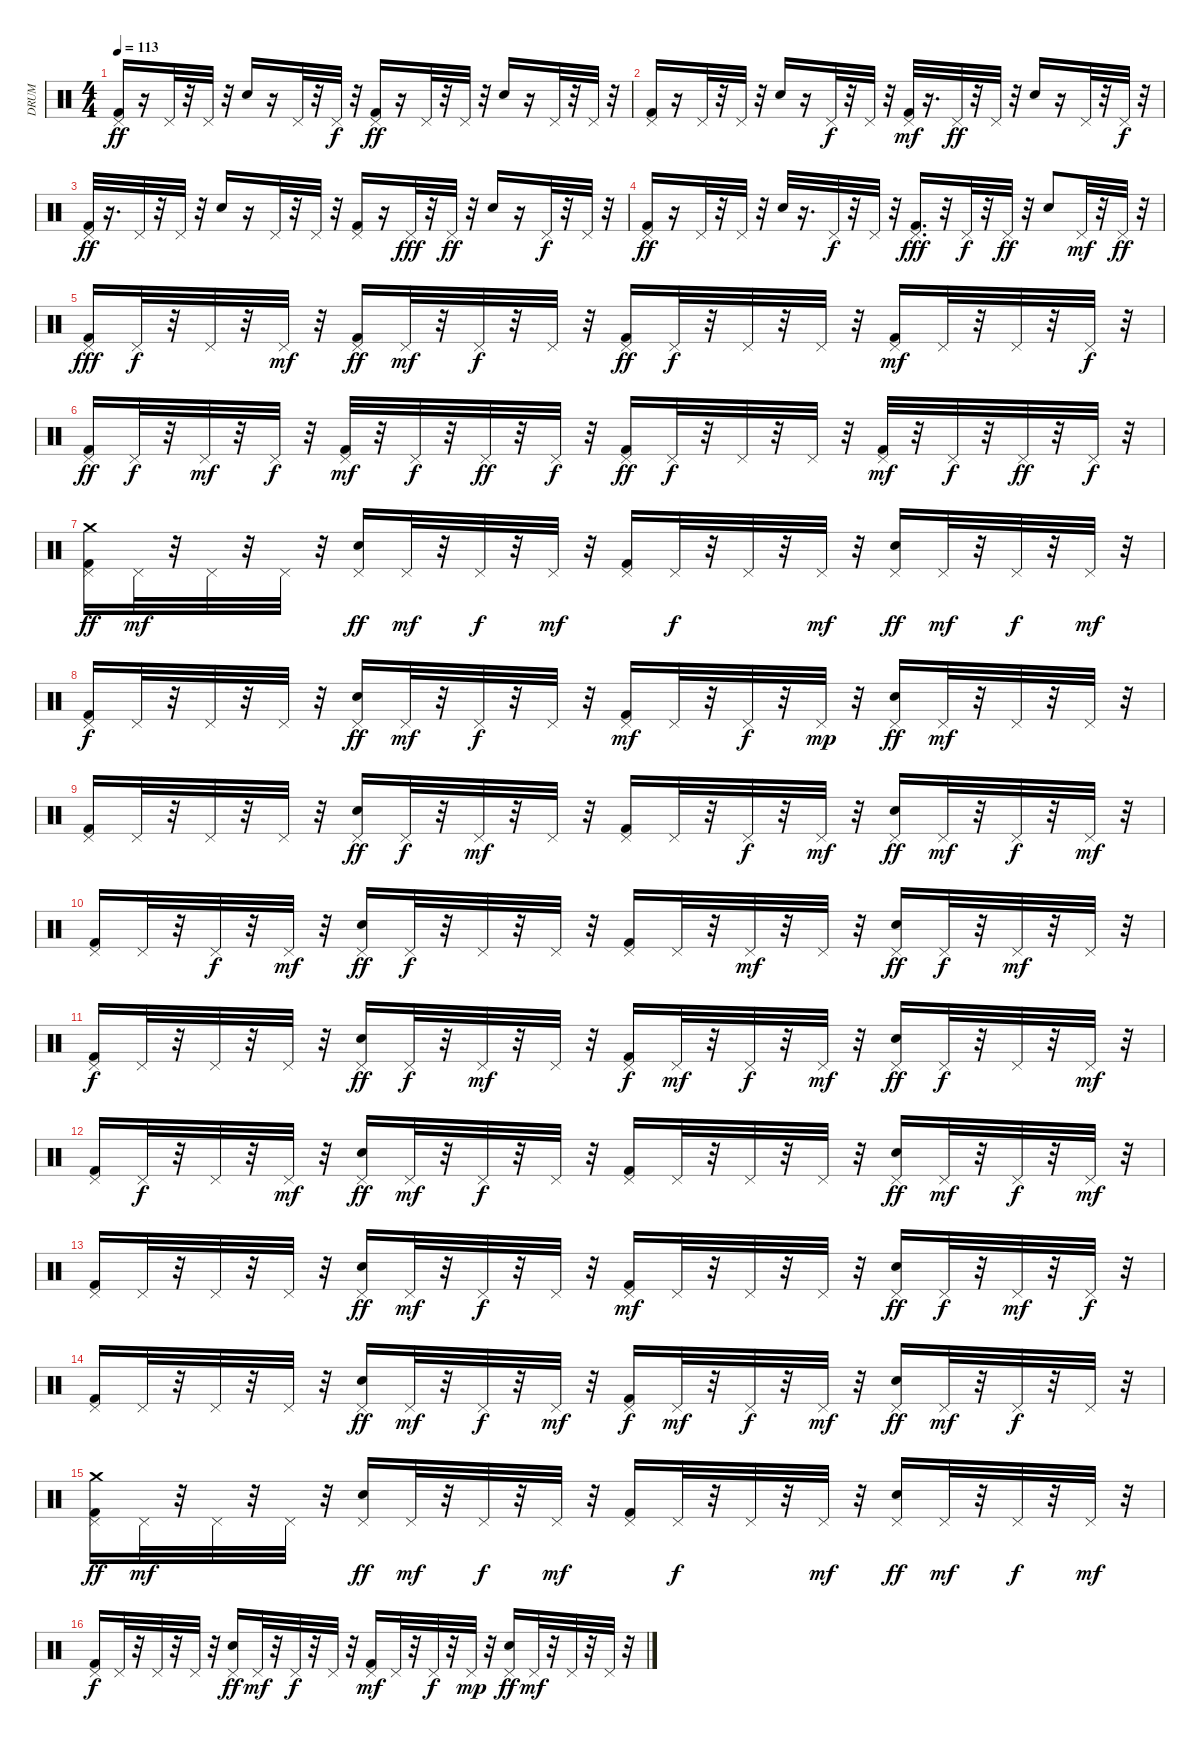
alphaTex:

\track ("DRUM" "DRUM") {instrument percussion}
\staff {score}
\articulation defaults
\ts (4 4)
\tempo 113
\clef neutral
\ks c
("Pedal Hi-Hat (hit)" "Kick (hit) 2").16{dy ff} r.16 "Pedal Hi-Hat (hit)".32 r.32 "Pedal Hi-Hat (hit)".32 r.32 "Snare (hit) 2".16 r.16 "Pedal Hi-Hat (hit)".32 r.32 "Pedal Hi-Hat (hit)".32{dy f} r.32 ("Pedal Hi-Hat (hit)" "Kick (hit) 2").16{dy ff} r.16 "Pedal Hi-Hat (hit)".32 r.32 "Pedal Hi-Hat (hit)".32 r.32 "Snare (hit) 2".16 r.16 "Pedal Hi-Hat (hit)".32 r.32 "Pedal Hi-Hat (hit)".32 r.32 |
("Pedal Hi-Hat (hit)" "Kick (hit) 2").16 r.16 "Pedal Hi-Hat (hit)".32 r.32 "Pedal Hi-Hat (hit)".32 r.32 "Snare (hit) 2".16 r.16 "Pedal Hi-Hat (hit)".32{dy f} r.32 "Pedal Hi-Hat (hit)".32 r.32 ("Pedal Hi-Hat (hit)" "Kick (hit) 2").32{dy mf} r.16{d} "Pedal Hi-Hat (hit)".32{dy ff} r.32 "Pedal Hi-Hat (hit)".32 r.32 "Snare (hit) 2".16 r.16 "Pedal Hi-Hat (hit)".32 r.32 "Pedal Hi-Hat (hit)".32{dy f} r.32 |
("Pedal Hi-Hat (hit)" "Kick (hit) 2").32{dy ff} r.16{d} "Pedal Hi-Hat (hit)".32 r.32 "Pedal Hi-Hat (hit)".32 r.32 "Snare (hit) 2".16 r.16 "Pedal Hi-Hat (hit)".32 r.32 "Pedal Hi-Hat (hit)".32 r.32 ("Pedal Hi-Hat (hit)" "Kick (hit) 2").16 r.16 "Pedal Hi-Hat (hit)".32{dy fff} r.32 "Pedal Hi-Hat (hit)".32{dy ff} r.32 "Snare (hit) 2".16 r.16 "Pedal Hi-Hat (hit)".32{dy f} r.32 "Pedal Hi-Hat (hit)".32 r.32 |
("Pedal Hi-Hat (hit)" "Kick (hit) 2").16{dy ff} r.16 "Pedal Hi-Hat (hit)".32 r.32 "Pedal Hi-Hat (hit)".32 r.32 "Snare (hit) 2".32 r.16{d} "Pedal Hi-Hat (hit)".32{dy f} r.32 "Pedal Hi-Hat (hit)".32 r.32 ("Pedal Hi-Hat (hit)" "Kick (hit) 2").16{d dy fff} r.32 "Pedal Hi-Hat (hit)".32{dy f} r.32 "Pedal Hi-Hat (hit)".32{dy ff} r.32 "Snare (hit) 2".8 "Pedal Hi-Hat (hit)".32{dy mf} r.32 "Pedal Hi-Hat (hit)".32{dy ff} r.32 |
("Pedal Hi-Hat (hit)" "Kick (hit) 2").16{dy fff} "Pedal Hi-Hat (hit)".32{dy f} r.32 "Pedal Hi-Hat (hit)".32 r.32 "Pedal Hi-Hat (hit)".32{dy mf} r.32 ("Pedal Hi-Hat (hit)" "Kick (hit) 2").16{dy ff} "Pedal Hi-Hat (hit)".32{dy mf} r.32 "Pedal Hi-Hat (hit)".32{dy f} r.32 "Pedal Hi-Hat (hit)".32 r.32 ("Pedal Hi-Hat (hit)" "Kick (hit) 2").16{dy ff} "Pedal Hi-Hat (hit)".32{dy f} r.32 "Pedal Hi-Hat (hit)".32 r.32 "Pedal Hi-Hat (hit)".32 r.32 ("Pedal Hi-Hat (hit)" "Kick (hit) 2").16{dy mf} "Pedal Hi-Hat (hit)".32 r.32 "Pedal Hi-Hat (hit)".32 r.32 "Pedal Hi-Hat (hit)".32{dy f} r.32 |
("Pedal Hi-Hat (hit)" "Kick (hit) 2").16{dy ff} "Pedal Hi-Hat (hit)".32{dy f} r.32 "Pedal Hi-Hat (hit)".32{dy mf} r.32 "Pedal Hi-Hat (hit)".32{dy f} r.32 ("Pedal Hi-Hat (hit)" "Kick (hit) 2").32{dy mf} r.32 "Pedal Hi-Hat (hit)".32{dy f} r.32 "Pedal Hi-Hat (hit)".32{dy ff} r.32 "Pedal Hi-Hat (hit)".32{dy f} r.32 ("Pedal Hi-Hat (hit)" "Kick (hit) 2").16{dy ff} "Pedal Hi-Hat (hit)".32{dy f} r.32 "Pedal Hi-Hat (hit)".32 r.32 "Pedal Hi-Hat (hit)".32 r.32 ("Pedal Hi-Hat (hit)" "Kick (hit) 2").32{dy mf} r.32 "Pedal Hi-Hat (hit)".32{dy f} r.32 "Pedal Hi-Hat (hit)".32{dy ff} r.32 "Pedal Hi-Hat (hit)".32{dy f} r.32 |
("Crash medium (hit)" "Pedal Hi-Hat (hit)" "Kick (hit) 2").16{dy ff} "Pedal Hi-Hat (hit)".32{dy mf} r.32 "Pedal Hi-Hat (hit)".32 r.32 "Pedal Hi-Hat (hit)".32 r.32 ("Pedal Hi-Hat (hit)" "Snare (hit) 2").16{dy ff} "Pedal Hi-Hat (hit)".32{dy mf} r.32 "Pedal Hi-Hat (hit)".32{dy f} r.32 "Pedal Hi-Hat (hit)".32{dy mf} r.32 ("Pedal Hi-Hat (hit)" "Kick (hit) 2").16 "Pedal Hi-Hat (hit)".32{dy f} r.32 "Pedal Hi-Hat (hit)".32 r.32 "Pedal Hi-Hat (hit)".32{dy mf} r.32 ("Pedal Hi-Hat (hit)" "Snare (hit) 2").16{dy ff} "Pedal Hi-Hat (hit)".32{dy mf} r.32 "Pedal Hi-Hat (hit)".32{dy f} r.32 "Pedal Hi-Hat (hit)".32{dy mf} r.32 |
("Pedal Hi-Hat (hit)" "Kick (hit) 2").16{dy f} "Pedal Hi-Hat (hit)".32 r.32 "Pedal Hi-Hat (hit)".32 r.32 "Pedal Hi-Hat (hit)".32 r.32 ("Pedal Hi-Hat (hit)" "Snare (hit) 2").16{dy ff} "Pedal Hi-Hat (hit)".32{dy mf} r.32 "Pedal Hi-Hat (hit)".32{dy f} r.32 "Pedal Hi-Hat (hit)".32 r.32 ("Pedal Hi-Hat (hit)" "Kick (hit) 2").16{dy mf} "Pedal Hi-Hat (hit)".32 r.32 "Pedal Hi-Hat (hit)".32{dy f} r.32 "Pedal Hi-Hat (hit)".32{dy mp} r.32 ("Pedal Hi-Hat (hit)" "Snare (hit) 2").16{dy ff} "Pedal Hi-Hat (hit)".32{dy mf} r.32 "Pedal Hi-Hat (hit)".32 r.32 "Pedal Hi-Hat (hit)".32 r.32 |
("Pedal Hi-Hat (hit)" "Kick (hit) 2").16 "Pedal Hi-Hat (hit)".32 r.32 "Pedal Hi-Hat (hit)".32 r.32 "Pedal Hi-Hat (hit)".32 r.32 ("Pedal Hi-Hat (hit)" "Snare (hit) 2").16{dy ff} "Pedal Hi-Hat (hit)".32{dy f} r.32 "Pedal Hi-Hat (hit)".32{dy mf} r.32 "Pedal Hi-Hat (hit)".32 r.32 ("Pedal Hi-Hat (hit)" "Kick (hit) 2").16 "Pedal Hi-Hat (hit)".32 r.32 "Pedal Hi-Hat (hit)".32{dy f} r.32 "Pedal Hi-Hat (hit)".32{dy mf} r.32 ("Pedal Hi-Hat (hit)" "Snare (hit) 2").16{dy ff} "Pedal Hi-Hat (hit)".32{dy mf} r.32 "Pedal Hi-Hat (hit)".32{dy f} r.32 "Pedal Hi-Hat (hit)".32{dy mf} r.32 |
("Pedal Hi-Hat (hit)" "Kick (hit) 2").16 "Pedal Hi-Hat (hit)".32 r.32 "Pedal Hi-Hat (hit)".32{dy f} r.32 "Pedal Hi-Hat (hit)".32{dy mf} r.32 ("Pedal Hi-Hat (hit)" "Snare (hit) 2").16{dy ff} "Pedal Hi-Hat (hit)".32{dy f} r.32 "Pedal Hi-Hat (hit)".32 r.32 "Pedal Hi-Hat (hit)".32 r.32 ("Pedal Hi-Hat (hit)" "Kick (hit) 2").16 "Pedal Hi-Hat (hit)".32 r.32 "Pedal Hi-Hat (hit)".32{dy mf} r.32 "Pedal Hi-Hat (hit)".32 r.32 ("Pedal Hi-Hat (hit)" "Snare (hit) 2").16{dy ff} "Pedal Hi-Hat (hit)".32{dy f} r.32 "Pedal Hi-Hat (hit)".32{dy mf} r.32 "Pedal Hi-Hat (hit)".32 r.32 |
("Pedal Hi-Hat (hit)" "Kick (hit) 2").16{dy f} "Pedal Hi-Hat (hit)".32 r.32 "Pedal Hi-Hat (hit)".32 r.32 "Pedal Hi-Hat (hit)".32 r.32 ("Pedal Hi-Hat (hit)" "Snare (hit) 2").16{dy ff} "Pedal Hi-Hat (hit)".32{dy f} r.32 "Pedal Hi-Hat (hit)".32{dy mf} r.32 "Pedal Hi-Hat (hit)".32 r.32 ("Pedal Hi-Hat (hit)" "Kick (hit) 2").16{dy f} "Pedal Hi-Hat (hit)".32{dy mf} r.32 "Pedal Hi-Hat (hit)".32{dy f} r.32 "Pedal Hi-Hat (hit)".32{dy mf} r.32 ("Pedal Hi-Hat (hit)" "Snare (hit) 2").16{dy ff} "Pedal Hi-Hat (hit)".32{dy f} r.32 "Pedal Hi-Hat (hit)".32 r.32 "Pedal Hi-Hat (hit)".32{dy mf} r.32 |
("Pedal Hi-Hat (hit)" "Kick (hit) 2").16 "Pedal Hi-Hat (hit)".32{dy f} r.32 "Pedal Hi-Hat (hit)".32 r.32 "Pedal Hi-Hat (hit)".32{dy mf} r.32 ("Pedal Hi-Hat (hit)" "Snare (hit) 2").16{dy ff} "Pedal Hi-Hat (hit)".32{dy mf} r.32 "Pedal Hi-Hat (hit)".32{dy f} r.32 "Pedal Hi-Hat (hit)".32 r.32 ("Pedal Hi-Hat (hit)" "Kick (hit) 2").16 "Pedal Hi-Hat (hit)".32 r.32 "Pedal Hi-Hat (hit)".32 r.32 "Pedal Hi-Hat (hit)".32 r.32 ("Pedal Hi-Hat (hit)" "Snare (hit) 2").16{dy ff} "Pedal Hi-Hat (hit)".32{dy mf} r.32 "Pedal Hi-Hat (hit)".32{dy f} r.32 "Pedal Hi-Hat (hit)".32{dy mf} r.32 |
("Pedal Hi-Hat (hit)" "Kick (hit) 2").16 "Pedal Hi-Hat (hit)".32 r.32 "Pedal Hi-Hat (hit)".32 r.32 "Pedal Hi-Hat (hit)".32 r.32 ("Pedal Hi-Hat (hit)" "Snare (hit) 2").16{dy ff} "Pedal Hi-Hat (hit)".32{dy mf} r.32 "Pedal Hi-Hat (hit)".32{dy f} r.32 "Pedal Hi-Hat (hit)".32 r.32 ("Pedal Hi-Hat (hit)" "Kick (hit) 2").16{dy mf} "Pedal Hi-Hat (hit)".32 r.32 "Pedal Hi-Hat (hit)".32 r.32 "Pedal Hi-Hat (hit)".32 r.32 ("Pedal Hi-Hat (hit)" "Snare (hit) 2").16{dy ff} "Pedal Hi-Hat (hit)".32{dy f} r.32 "Pedal Hi-Hat (hit)".32{dy mf} r.32 "Pedal Hi-Hat (hit)".32{dy f} r.32 |
("Pedal Hi-Hat (hit)" "Kick (hit) 2").16 "Pedal Hi-Hat (hit)".32 r.32 "Pedal Hi-Hat (hit)".32 r.32 "Pedal Hi-Hat (hit)".32 r.32 ("Pedal Hi-Hat (hit)" "Snare (hit) 2").16{dy ff} "Pedal Hi-Hat (hit)".32{dy mf} r.32 "Pedal Hi-Hat (hit)".32{dy f} r.32 "Pedal Hi-Hat (hit)".32{dy mf} r.32 ("Pedal Hi-Hat (hit)" "Kick (hit) 2").16{dy f} "Pedal Hi-Hat (hit)".32{dy mf} r.32 "Pedal Hi-Hat (hit)".32{dy f} r.32 "Pedal Hi-Hat (hit)".32{dy mf} r.32 ("Pedal Hi-Hat (hit)" "Snare (hit) 2").16{dy ff} "Pedal Hi-Hat (hit)".32{dy mf} r.32 "Pedal Hi-Hat (hit)".32{dy f} r.32 "Pedal Hi-Hat (hit)".32 r.32 |
("Crash medium (hit)" "Pedal Hi-Hat (hit)" "Kick (hit) 2").16{dy ff} "Pedal Hi-Hat (hit)".32{dy mf} r.32 "Pedal Hi-Hat (hit)".32 r.32 "Pedal Hi-Hat (hit)".32 r.32 ("Pedal Hi-Hat (hit)" "Snare (hit) 2").16{dy ff} "Pedal Hi-Hat (hit)".32{dy mf} r.32 "Pedal Hi-Hat (hit)".32{dy f} r.32 "Pedal Hi-Hat (hit)".32{dy mf} r.32 ("Pedal Hi-Hat (hit)" "Kick (hit) 2").16 "Pedal Hi-Hat (hit)".32{dy f} r.32 "Pedal Hi-Hat (hit)".32 r.32 "Pedal Hi-Hat (hit)".32{dy mf} r.32 ("Pedal Hi-Hat (hit)" "Snare (hit) 2").16{dy ff} "Pedal Hi-Hat (hit)".32{dy mf} r.32 "Pedal Hi-Hat (hit)".32{dy f} r.32 "Pedal Hi-Hat (hit)".32{dy mf} r.32 |
("Pedal Hi-Hat (hit)" "Kick (hit) 2").16{dy f} "Pedal Hi-Hat (hit)".32 r.32 "Pedal Hi-Hat (hit)".32 r.32 "Pedal Hi-Hat (hit)".32 r.32 ("Pedal Hi-Hat (hit)" "Snare (hit) 2").16{dy ff} "Pedal Hi-Hat (hit)".32{dy mf} r.32 "Pedal Hi-Hat (hit)".32{dy f} r.32 "Pedal Hi-Hat (hit)".32 r.32 ("Pedal Hi-Hat (hit)" "Kick (hit) 2").16{dy mf} "Pedal Hi-Hat (hit)".32 r.32 "Pedal Hi-Hat (hit)".32{dy f} r.32 "Pedal Hi-Hat (hit)".32{dy mp} r.32 ("Pedal Hi-Hat (hit)" "Snare (hit) 2").16{dy ff} "Pedal Hi-Hat (hit)".32{dy mf} r.32 "Pedal Hi-Hat (hit)".32 r.32 "Pedal Hi-Hat (hit)".32 r.32
